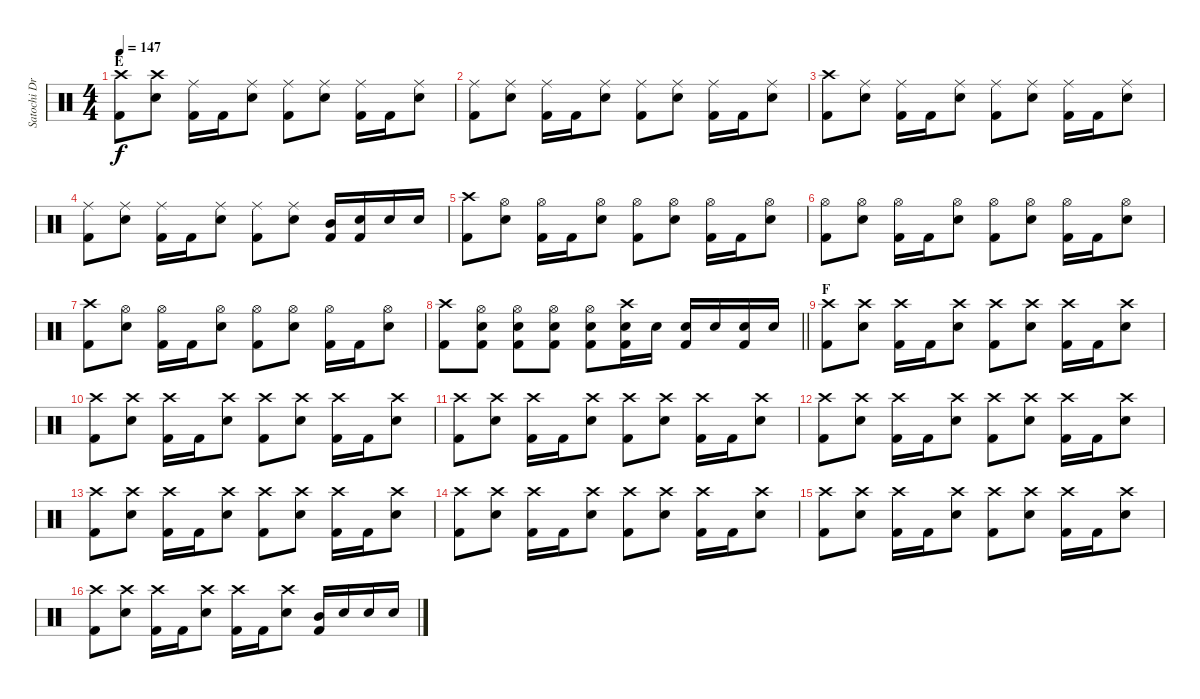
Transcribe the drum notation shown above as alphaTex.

\track ("Satochi Drums" "Satochi Dr") {instrument percussion}
\staff {score}
\articulation defaults
\ts (4 4)
\section ("" "E")
\tempo 147
\clef neutral
\ks c
("Crash high (hit)" "Kick (hit) 2").8{dy f} ("Crash high (hit)" "Snare (hit) 2").8 ("Ride (middle)" "Kick (hit) 2").16 "Kick (hit) 2".16 ("Ride (middle)" "Snare (hit) 2").8 ("Ride (middle)" "Kick (hit) 2").8 ("Ride (middle)" "Snare (hit) 2").8 ("Ride (middle)" "Kick (hit) 2").16 "Kick (hit) 2".16 ("Ride (middle)" "Snare (hit) 2").8 |
("Ride (middle)" "Kick (hit) 2").8 ("Ride (middle)" "Snare (hit) 2").8 ("Ride (middle)" "Kick (hit) 2").16 "Kick (hit) 2".16 ("Ride (middle)" "Snare (hit) 2").8 ("Ride (middle)" "Kick (hit) 2").8 ("Ride (middle)" "Snare (hit) 2").8 ("Ride (middle)" "Kick (hit) 2").16 "Kick (hit) 2".16 ("Ride (middle)" "Snare (hit) 2").8 |
("Crash high (hit)" "Kick (hit) 2").8 ("Ride (middle)" "Snare (hit) 2").8 ("Ride (middle)" "Kick (hit) 2").16 "Kick (hit) 2".16 ("Ride (middle)" "Snare (hit) 2").8 ("Ride (middle)" "Kick (hit) 2").8 ("Ride (middle)" "Snare (hit) 2").8 ("Ride (middle)" "Kick (hit) 2").16 "Kick (hit) 2".16 ("Ride (middle)" "Snare (hit) 2").8 |
("Ride (middle)" "Kick (hit) 2").8 ("Ride (middle)" "Snare (hit) 2").8 ("Ride (middle)" "Kick (hit) 2").16 "Kick (hit) 2".16 ("Ride (middle)" "Snare (hit) 2").8 ("Ride (middle)" "Kick (hit) 2").8 ("Ride (middle)" "Snare (hit) 2").8 ("Mid Tom (hit)" "Kick (hit) 2").16 ("Snare (hit) 2" "Kick (hit) 2").16 "Snare (hit) 2".16 "Snare (hit) 2".16 |
("Crash high (hit)" "Kick (hit) 2").8 ("Hi-Hat (open)" "Snare (hit) 2").8 ("Hi-Hat (open)" "Kick (hit) 2").16 "Kick (hit) 2".16 ("Hi-Hat (open)" "Snare (hit) 2").8 ("Hi-Hat (open)" "Kick (hit) 2").8 ("Hi-Hat (open)" "Snare (hit) 2").8 ("Hi-Hat (open)" "Kick (hit) 2").16 "Kick (hit) 2".16 ("Hi-Hat (open)" "Snare (hit) 2").8 |
("Hi-Hat (open)" "Kick (hit) 2").8 ("Hi-Hat (open)" "Snare (hit) 2").8 ("Hi-Hat (open)" "Kick (hit) 2").16 "Kick (hit) 2".16 ("Hi-Hat (open)" "Snare (hit) 2").8 ("Hi-Hat (open)" "Kick (hit) 2").8 ("Hi-Hat (open)" "Snare (hit) 2").8 ("Hi-Hat (open)" "Kick (hit) 2").16 "Kick (hit) 2".16 ("Hi-Hat (open)" "Snare (hit) 2").8 |
("Crash high (hit)" "Kick (hit) 2").8 ("Hi-Hat (open)" "Snare (hit) 2").8 ("Hi-Hat (open)" "Kick (hit) 2").16 "Kick (hit) 2".16 ("Hi-Hat (open)" "Snare (hit) 2").8 ("Hi-Hat (open)" "Kick (hit) 2").8 ("Hi-Hat (open)" "Snare (hit) 2").8 ("Hi-Hat (open)" "Kick (hit) 2").16 "Kick (hit) 2".16 ("Hi-Hat (open)" "Snare (hit) 2").8 |
\barLineRight lightlight
("Crash high (hit)" "Kick (hit) 2").8 ("Hi-Hat (open)" "Snare (hit) 2" "Kick (hit) 2").8 ("Hi-Hat (open)" "Snare (hit) 2" "Kick (hit) 2").8 ("Hi-Hat (open)" "Snare (hit) 2" "Kick (hit) 2").8 ("Hi-Hat (open)" "Snare (hit) 2" "Kick (hit) 2").8 ("Crash high (hit)" "Snare (hit) 2" "Kick (hit) 2").16 "Snare (hit) 2".16 ("Snare (hit) 2" "Kick (hit) 2").16 "Snare (hit) 2".16 ("Snare (hit) 2" "Kick (hit) 2").16 "Snare (hit) 2".16 |
\section ("" "F")
("Crash high (hit)" "Kick (hit) 2").8 ("Crash high (hit)" "Snare (hit) 2").8 ("Crash high (hit)" "Kick (hit) 2").16 "Kick (hit) 2".16 ("Crash high (hit)" "Snare (hit) 2").8 ("Crash high (hit)" "Kick (hit) 2").8 ("Crash high (hit)" "Snare (hit) 2").8 ("Crash high (hit)" "Kick (hit) 2").16 "Kick (hit) 2".16 ("Crash high (hit)" "Snare (hit) 2").8 |
("Crash high (hit)" "Kick (hit) 2").8 ("Crash high (hit)" "Snare (hit) 2").8 ("Crash high (hit)" "Kick (hit) 2").16 "Kick (hit) 2".16 ("Crash high (hit)" "Snare (hit) 2").8 ("Crash high (hit)" "Kick (hit) 2").8 ("Crash high (hit)" "Snare (hit) 2").8 ("Crash high (hit)" "Kick (hit) 2").16 "Kick (hit) 2".16 ("Crash high (hit)" "Snare (hit) 2").8 |
("Crash high (hit)" "Kick (hit) 2").8 ("Crash high (hit)" "Snare (hit) 2").8 ("Crash high (hit)" "Kick (hit) 2").16 "Kick (hit) 2".16 ("Crash high (hit)" "Snare (hit) 2").8 ("Crash high (hit)" "Kick (hit) 2").8 ("Crash high (hit)" "Snare (hit) 2").8 ("Crash high (hit)" "Kick (hit) 2").16 "Kick (hit) 2".16 ("Crash high (hit)" "Snare (hit) 2").8 |
("Crash high (hit)" "Kick (hit) 2").8 ("Crash high (hit)" "Snare (hit) 2").8 ("Crash high (hit)" "Kick (hit) 2").16 "Kick (hit) 2".16 ("Crash high (hit)" "Snare (hit) 2").8 ("Crash high (hit)" "Kick (hit) 2").8 ("Crash high (hit)" "Snare (hit) 2").8 ("Crash high (hit)" "Kick (hit) 2").16 "Kick (hit) 2".16 ("Crash high (hit)" "Snare (hit) 2").8 |
("Crash high (hit)" "Kick (hit) 2").8 ("Crash high (hit)" "Snare (hit) 2").8 ("Crash high (hit)" "Kick (hit) 2").16 "Kick (hit) 2".16 ("Crash high (hit)" "Snare (hit) 2").8 ("Crash high (hit)" "Kick (hit) 2").8 ("Crash high (hit)" "Snare (hit) 2").8 ("Crash high (hit)" "Kick (hit) 2").16 "Kick (hit) 2".16 ("Crash high (hit)" "Snare (hit) 2").8 |
("Crash high (hit)" "Kick (hit) 2").8 ("Crash high (hit)" "Snare (hit) 2").8 ("Crash high (hit)" "Kick (hit) 2").16 "Kick (hit) 2".16 ("Crash high (hit)" "Snare (hit) 2").8 ("Crash high (hit)" "Kick (hit) 2").8 ("Crash high (hit)" "Snare (hit) 2").8 ("Crash high (hit)" "Kick (hit) 2").16 "Kick (hit) 2".16 ("Crash high (hit)" "Snare (hit) 2").8 |
("Crash high (hit)" "Kick (hit) 2").8 ("Crash high (hit)" "Snare (hit) 2").8 ("Crash high (hit)" "Kick (hit) 2").16 "Kick (hit) 2".16 ("Crash high (hit)" "Snare (hit) 2").8 ("Crash high (hit)" "Kick (hit) 2").8 ("Crash high (hit)" "Snare (hit) 2").8 ("Crash high (hit)" "Kick (hit) 2").16 "Kick (hit) 2".16 ("Crash high (hit)" "Snare (hit) 2").8 |
("Crash high (hit)" "Kick (hit) 2").8 ("Crash high (hit)" "Snare (hit) 2").8 ("Crash high (hit)" "Kick (hit) 2").16 "Kick (hit) 2".16 ("Crash high (hit)" "Snare (hit) 2").8 ("Crash high (hit)" "Kick (hit) 2").16 "Kick (hit) 2".16 ("Crash high (hit)" "Snare (hit) 2").8 ("Mid Tom (hit)" "Kick (hit) 2").16 "Snare (hit) 2".16 "Snare (hit) 2".16 "Snare (hit) 2".16
